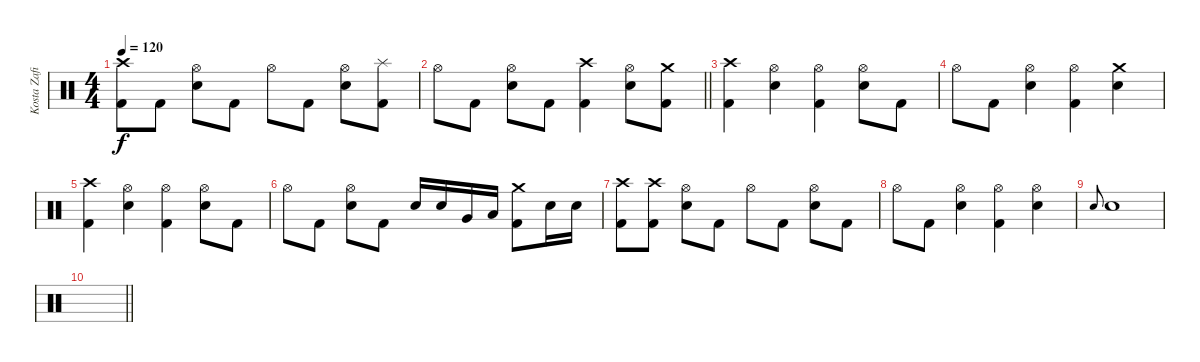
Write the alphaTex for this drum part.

\track ("Kosta Zafiriou" "Kosta Zafi") {instrument percussion}
\staff {score}
\articulation defaults
\ts (4 4)
\tempo 120
\clef neutral
\ks c
("Crash high (hit)" "Kick (hit) 2").8{dy f} "Kick (hit) 2".8 ("Hi-Hat (open)" "Electric Snare (hit)").8 "Kick (hit) 2".8 "Hi-Hat (open)".8 "Kick (hit) 2".8 ("Hi-Hat (open)" "Electric Snare (hit)").8 ("Splash (hit)" "Kick (hit) 2").8 |
\barLineRight lightlight "Hi-Hat (open)".8 "Kick (hit) 2".8
("Hi-Hat (open)" "Electric Snare (hit)").8 "Kick (hit) 2".8 ("Crash high (hit)" "Kick (hit) 2").4 ("Hi-Hat (open)" "Electric Snare (hit)").8 ("Crash medium (hit)" "Kick (hit) 2").8 |
("Crash high (hit)" "Kick (hit) 2").4 ("Hi-Hat (open)" "Electric Snare (hit)").4 ("Hi-Hat (open)" "Kick (hit) 2").4 ("Hi-Hat (open)" "Electric Snare (hit)").8 "Kick (hit) 2".8 |
"Hi-Hat (open)".8 "Kick (hit) 2".8 ("Hi-Hat (open)" "Electric Snare (hit)").4 ("Hi-Hat (open)" "Kick (hit) 2").4 ("Crash medium (hit)" "Electric Snare (hit)").4 |
("Crash high (hit)" "Kick (hit) 2").4 ("Hi-Hat (open)" "Electric Snare (hit)").4 ("Hi-Hat (open)" "Kick (hit) 2").4 ("Hi-Hat (open)" "Electric Snare (hit)").8 "Kick (hit) 2".8 |
"Hi-Hat (open)".8 "Kick (hit) 2".8 ("Hi-Hat (open)" "Electric Snare (hit)").8 "Kick (hit) 2".8 "Electric Snare (hit)".16 "Electric Snare (hit)".16 "Very Low Tom (hit)".16 "Low Floor Tom (hit)".16 ("Crash medium (hit)" "Kick (hit) 2").8 "Electric Snare (hit)".16 "Electric Snare (hit)".16 |
("Crash high (hit)" "Kick (hit) 2").8 ("Crash high (hit)" "Kick (hit) 2").8 ("Hi-Hat (open)" "Electric Snare (hit)").8 "Kick (hit) 2".8 "Hi-Hat (open)".8 "Kick (hit) 2".8 ("Hi-Hat (open)" "Electric Snare (hit)").8 "Kick (hit) 2".8 |
"Hi-Hat (open)".8 "Kick (hit) 2".8 ("Hi-Hat (open)" "Electric Snare (hit)").4 ("Hi-Hat (open)" "Kick (hit) 2").4 ("Hi-Hat (open)" "Electric Snare (hit)").4 |
"Electric Snare (hit)".8{gr onbeat} "Electric Snare (hit)".1 |
\barLineRight lightlight
